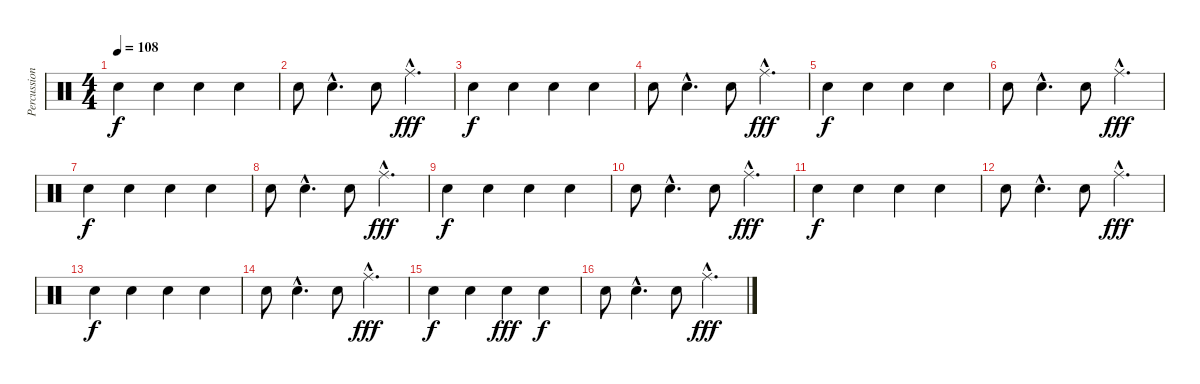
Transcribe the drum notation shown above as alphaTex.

\track ("Percussion" "Percussion") {instrument percussion}
\staff {score}
\articulation defaults
\ts (4 4)
\tempo 108
\clef neutral
\ks c "Snare (hit) 2".4{dy f} "Snare (hit) 2".4 "Snare (hit) 2".4 "Snare (hit) 2".4
|
"Snare (hit) 2".8 "Snare (hit) 2"{hac}.4{d} "Snare (hit) 2".8 "Ride (middle)"{hac}.4{d dy fff} |
"Snare (hit) 2".4{dy f} "Snare (hit) 2".4 "Snare (hit) 2".4 "Snare (hit) 2".4 |
"Snare (hit) 2".8 "Snare (hit) 2"{hac}.4{d} "Snare (hit) 2".8 "Ride (middle)"{hac}.4{d dy fff} |
"Snare (hit) 2".4{dy f} "Snare (hit) 2".4 "Snare (hit) 2".4 "Snare (hit) 2".4 |
"Snare (hit) 2".8 "Snare (hit) 2"{hac}.4{d} "Snare (hit) 2".8 "Ride (middle)"{hac}.4{d dy fff} |
"Snare (hit) 2".4{dy f} "Snare (hit) 2".4 "Snare (hit) 2".4 "Snare (hit) 2".4 |
"Snare (hit) 2".8 "Snare (hit) 2"{hac}.4{d} "Snare (hit) 2".8 "Ride (middle)"{hac}.4{d dy fff} |
"Snare (hit) 2".4{dy f} "Snare (hit) 2".4 "Snare (hit) 2".4 "Snare (hit) 2".4 |
"Snare (hit) 2".8 "Snare (hit) 2"{hac}.4{d} "Snare (hit) 2".8 "Ride (middle)"{hac}.4{d dy fff} |
"Snare (hit) 2".4{dy f} "Snare (hit) 2".4 "Snare (hit) 2".4 "Snare (hit) 2".4 |
"Snare (hit) 2".8 "Snare (hit) 2"{hac}.4{d} "Snare (hit) 2".8 "Ride (middle)"{hac}.4{d dy fff} |
"Snare (hit) 2".4{dy f} "Snare (hit) 2".4 "Snare (hit) 2".4 "Snare (hit) 2".4 |
"Snare (hit) 2".8 "Snare (hit) 2"{hac}.4{d} "Snare (hit) 2".8 "Ride (middle)"{hac}.4{d dy fff} |
"Snare (hit) 2".4{dy f} "Snare (hit) 2".4 "Snare (hit) 2".4{dy fff} "Snare (hit) 2".4{dy f} |
"Snare (hit) 2".8 "Snare (hit) 2"{hac}.4{d} "Snare (hit) 2".8 "Ride (middle)"{hac}.4{d dy fff}
